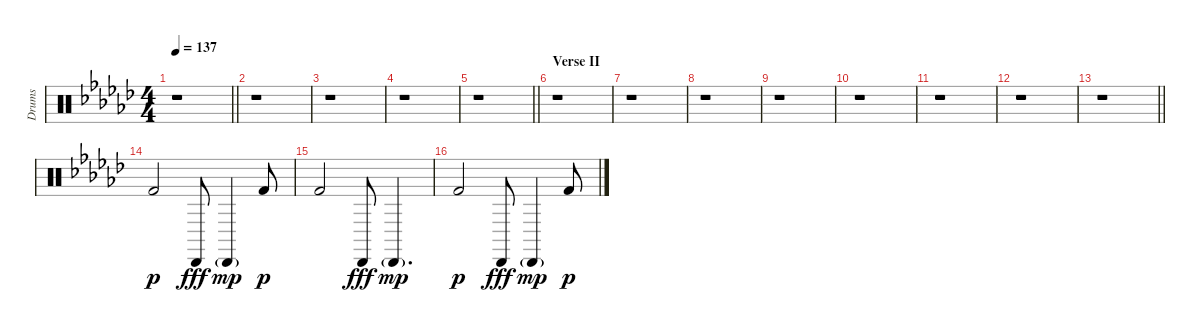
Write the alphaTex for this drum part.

\track ("Drums" "Drums") {instrument percussion}
\staff
\articulation defaults
\ts (4 4)
\tempo 137
\clef neutral
\barLineRight lightlight
\ks ebminor
r.1{dy p} |
r.1 |
r.1 |
r.1 |
\barLineRight lightlight
r.1 |
\section ("" "Verse II")
r.1 |
r.1 |
r.1 |
r.1 |
r.1 |
r.1 |
r.1 |
\barLineRight lightlight
r.1 |
"Kick (hit) 2".2 "Cabasa (hit)".8{dy fff} "Cabasa (hit)"{g}.4{dy mp} "Kick (hit) 2".8{dy p} |
"Kick (hit) 2".2 "Cabasa (hit)".8{dy fff} "Cabasa (hit)"{g}.4{d dy mp} |
"Kick (hit) 2".2{dy p} "Cabasa (hit)".8{dy fff} "Cabasa (hit)"{g}.4{dy mp} "Kick (hit) 2".8{dy p}
